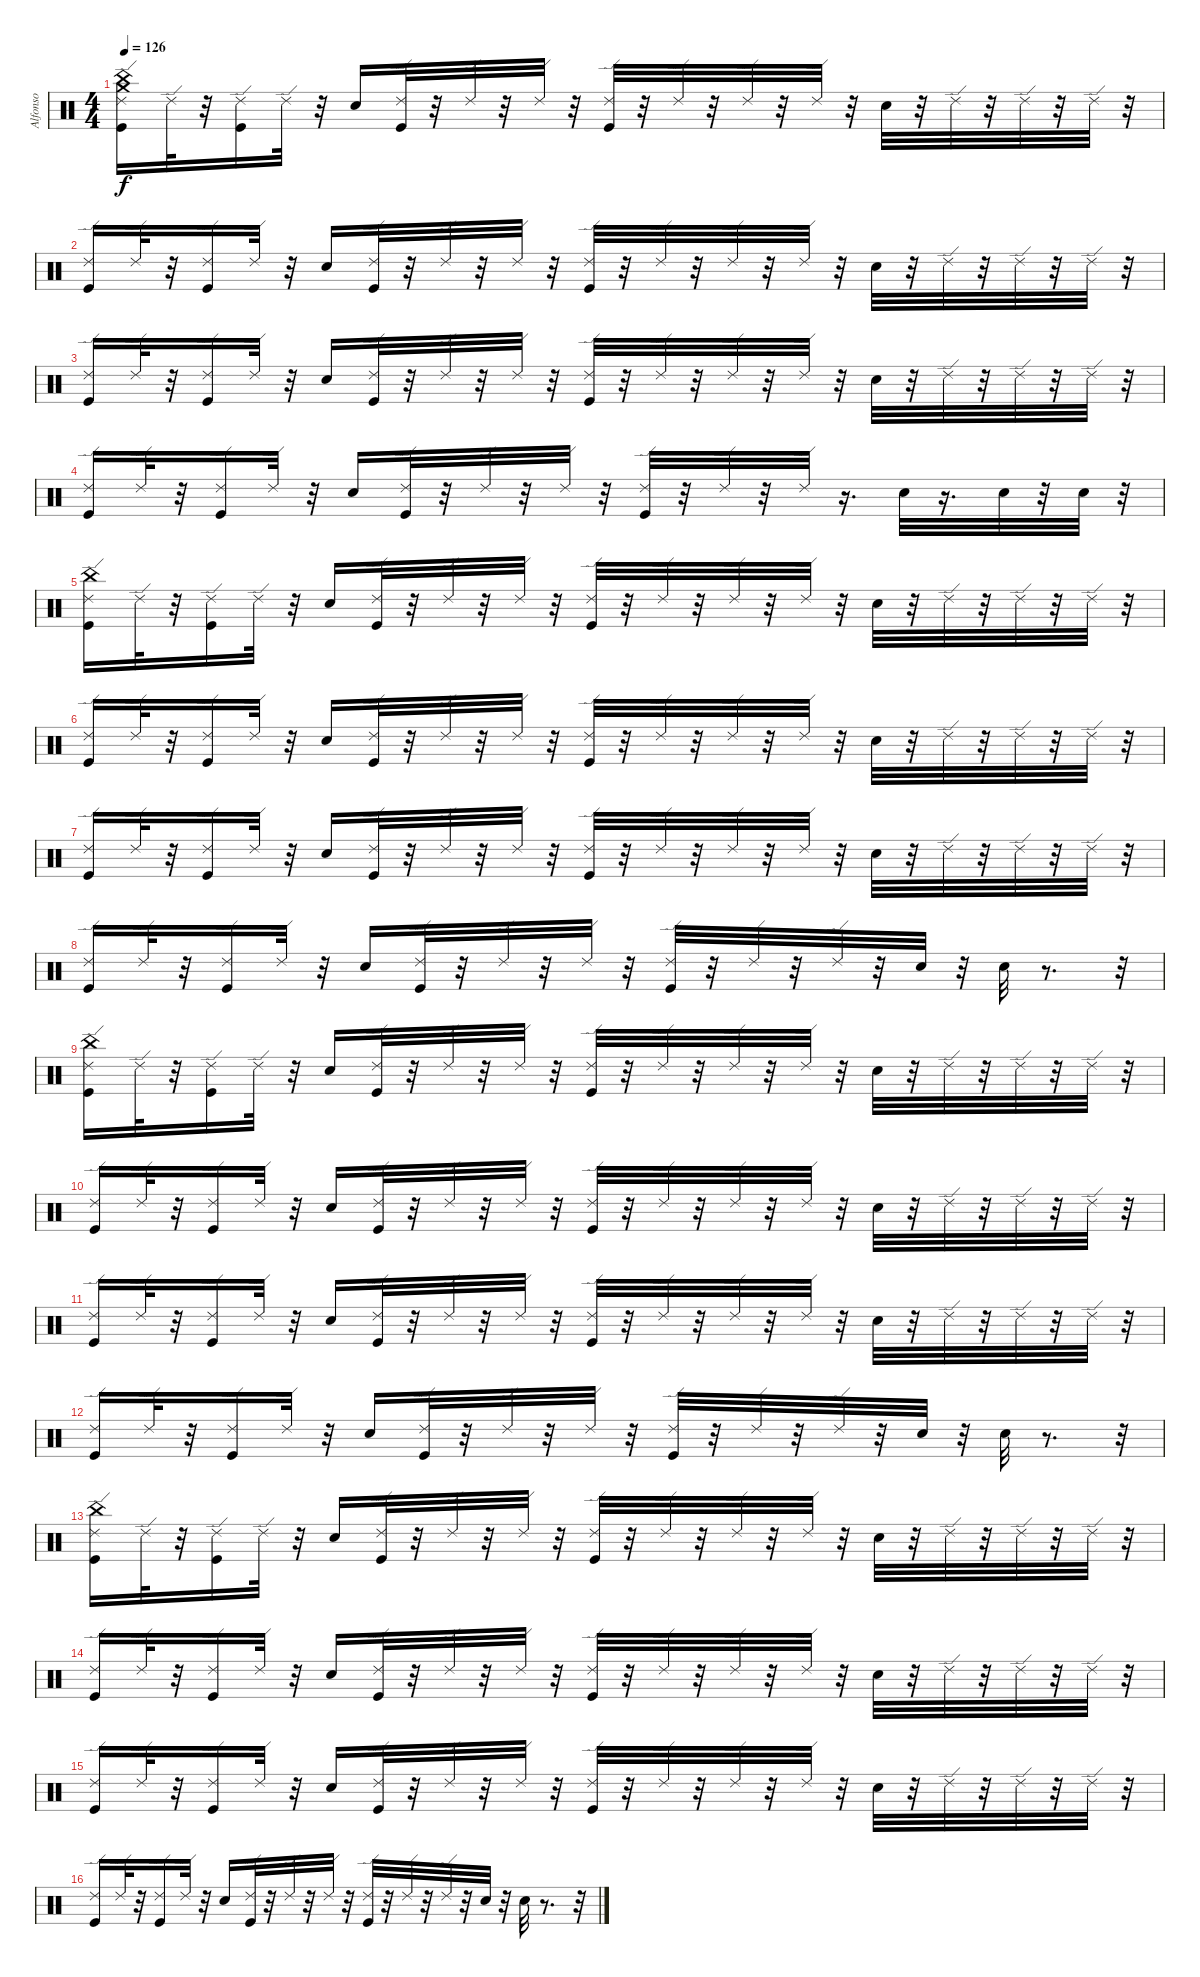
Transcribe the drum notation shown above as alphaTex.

\track ("Alfonso" "Alfonso") {instrument percussion}
\staff {score}
\articulation defaults
\ts (4 4)
\tempo 126
\clef neutral
\ks c
("Ride (edge) 2" "Kick (hit)" "Crash medium (hit)" "China (hit)").16{dy f} "Ride (edge) 2".32 r.32 ("Ride (edge) 2" "Kick (hit)").16 "Ride (edge) 2".32 r.32 "Snare (hit) 2".16 ("Kick (hit)" "Ride (edge) 2").32 r.32 "Ride (edge) 2".32 r.32 "Ride (edge) 2".32 r.32 ("Ride (edge) 2" "Kick (hit)").32 r.32 "Ride (edge) 2".32 r.32 "Ride (edge) 2".32 r.32 "Ride (edge) 2".32 r.32 "Snare (hit) 2".32 r.32 "Ride (edge) 2".32 r.32 "Ride (edge) 2".32 r.32 "Ride (edge) 2".32 r.32 |
("Ride (edge) 2" "Kick (hit)").16 "Ride (edge) 2".32 r.32 ("Kick (hit)" "Ride (edge) 2").16 "Ride (edge) 2".32 r.32 "Snare (hit) 2".16 ("Kick (hit)" "Ride (edge) 2").32 r.32 "Ride (edge) 2".32 r.32 "Ride (edge) 2".32 r.32 ("Ride (edge) 2" "Kick (hit)").32 r.32 "Ride (edge) 2".32 r.32 "Ride (edge) 2".32 r.32 "Ride (edge) 2".32 r.32 "Snare (hit) 2".32 r.32 "Ride (edge) 2".32 r.32 "Ride (edge) 2".32 r.32 "Ride (edge) 2".32 r.32 |
("Kick (hit)" "Ride (edge) 2").16 "Ride (edge) 2".32 r.32 ("Ride (edge) 2" "Kick (hit)").16 "Ride (edge) 2".32 r.32 "Snare (hit) 2".16 ("Ride (edge) 2" "Kick (hit)").32 r.32 "Ride (edge) 2".32 r.32 "Ride (edge) 2".32 r.32 ("Ride (edge) 2" "Kick (hit)").32 r.32 "Ride (edge) 2".32 r.32 "Ride (edge) 2".32 r.32 "Ride (edge) 2".32 r.32 "Snare (hit) 2".32 r.32 "Ride (edge) 2".32 r.32 "Ride (edge) 2".32 r.32 "Ride (edge) 2".32 r.32 |
("Ride (edge) 2" "Kick (hit)").16 "Ride (edge) 2".32 r.32 ("Kick (hit)" "Ride (edge) 2").16 "Ride (edge) 2".32 r.32 "Snare (hit) 2".16 ("Kick (hit)" "Ride (edge) 2").32 r.32 "Ride (edge) 2".32 r.32 "Ride (edge) 2".32 r.32 ("Kick (hit)" "Ride (edge) 2").32 r.32 "Ride (edge) 2".32 r.32 "Ride (edge) 2".32 r.16{d} "Snare (hit) 2".32 r.16{d} "Snare (hit) 2".32 r.32 "Snare (hit) 2".32 r.32 |
("Ride (edge) 2" "China (hit)" "Kick (hit)").16 "Ride (edge) 2".32 r.32 ("Ride (edge) 2" "Kick (hit)").16 "Ride (edge) 2".32 r.32 "Snare (hit) 2".16 ("Kick (hit)" "Ride (edge) 2").32 r.32 "Ride (edge) 2".32 r.32 "Ride (edge) 2".32 r.32 ("Kick (hit)" "Ride (edge) 2").32 r.32 "Ride (edge) 2".32 r.32 "Ride (edge) 2".32 r.32 "Ride (edge) 2".32 r.32 "Snare (hit) 2".32 r.32 "Ride (edge) 2".32 r.32 "Ride (edge) 2".32 r.32 "Ride (edge) 2".32 r.32 |
("Ride (edge) 2" "Kick (hit)").16 "Ride (edge) 2".32 r.32 ("Kick (hit)" "Ride (edge) 2").16 "Ride (edge) 2".32 r.32 "Snare (hit) 2".16 ("Ride (edge) 2" "Kick (hit)").32 r.32 "Ride (edge) 2".32 r.32 "Ride (edge) 2".32 r.32 ("Kick (hit)" "Ride (edge) 2").32 r.32 "Ride (edge) 2".32 r.32 "Ride (edge) 2".32 r.32 "Ride (edge) 2".32 r.32 "Snare (hit) 2".32 r.32 "Ride (edge) 2".32 r.32 "Ride (edge) 2".32 r.32 "Ride (edge) 2".32 r.32 |
("Kick (hit)" "Ride (edge) 2").16 "Ride (edge) 2".32 r.32 ("Kick (hit)" "Ride (edge) 2").16 "Ride (edge) 2".32 r.32 "Snare (hit) 2".16 ("Ride (edge) 2" "Kick (hit)").32 r.32 "Ride (edge) 2".32 r.32 "Ride (edge) 2".32 r.32 ("Ride (edge) 2" "Kick (hit)").32 r.32 "Ride (edge) 2".32 r.32 "Ride (edge) 2".32 r.32 "Ride (edge) 2".32 r.32 "Snare (hit) 2".32 r.32 "Ride (edge) 2".32 r.32 "Ride (edge) 2".32 r.32 "Ride (edge) 2".32 r.32 |
("Kick (hit)" "Ride (edge) 2").16 "Ride (edge) 2".32 r.32 ("Kick (hit)" "Ride (edge) 2").16 "Ride (edge) 2".32 r.32 "Snare (hit) 2".16 ("Kick (hit)" "Ride (edge) 2").32 r.32 "Ride (edge) 2".32 r.32 "Ride (edge) 2".32 r.32 ("Kick (hit)" "Ride (edge) 2").32 r.32 "Ride (edge) 2".32 r.32 "Ride (edge) 2".32 r.32 "Snare (hit) 2".32 r.32 "Snare (hit) 2".32 r.8{d} r.32 |
("Ride (edge) 2" "China (hit)" "Kick (hit)").16 "Ride (edge) 2".32 r.32 ("Ride (edge) 2" "Kick (hit)").16 "Ride (edge) 2".32 r.32 "Snare (hit) 2".16 ("Kick (hit)" "Ride (edge) 2").32 r.32 "Ride (edge) 2".32 r.32 "Ride (edge) 2".32 r.32 ("Kick (hit)" "Ride (edge) 2").32 r.32 "Ride (edge) 2".32 r.32 "Ride (edge) 2".32 r.32 "Ride (edge) 2".32 r.32 "Snare (hit) 2".32 r.32 "Ride (edge) 2".32 r.32 "Ride (edge) 2".32 r.32 "Ride (edge) 2".32 r.32 |
("Ride (edge) 2" "Kick (hit)").16 "Ride (edge) 2".32 r.32 ("Kick (hit)" "Ride (edge) 2").16 "Ride (edge) 2".32 r.32 "Snare (hit) 2".16 ("Ride (edge) 2" "Kick (hit)").32 r.32 "Ride (edge) 2".32 r.32 "Ride (edge) 2".32 r.32 ("Kick (hit)" "Ride (edge) 2").32 r.32 "Ride (edge) 2".32 r.32 "Ride (edge) 2".32 r.32 "Ride (edge) 2".32 r.32 "Snare (hit) 2".32 r.32 "Ride (edge) 2".32 r.32 "Ride (edge) 2".32 r.32 "Ride (edge) 2".32 r.32 |
("Kick (hit)" "Ride (edge) 2").16 "Ride (edge) 2".32 r.32 ("Kick (hit)" "Ride (edge) 2").16 "Ride (edge) 2".32 r.32 "Snare (hit) 2".16 ("Ride (edge) 2" "Kick (hit)").32 r.32 "Ride (edge) 2".32 r.32 "Ride (edge) 2".32 r.32 ("Ride (edge) 2" "Kick (hit)").32 r.32 "Ride (edge) 2".32 r.32 "Ride (edge) 2".32 r.32 "Ride (edge) 2".32 r.32 "Snare (hit) 2".32 r.32 "Ride (edge) 2".32 r.32 "Ride (edge) 2".32 r.32 "Ride (edge) 2".32 r.32 |
("Kick (hit)" "Ride (edge) 2").16 "Ride (edge) 2".32 r.32 ("Kick (hit)" "Ride (edge) 2").16 "Ride (edge) 2".32 r.32 "Snare (hit) 2".16 ("Kick (hit)" "Ride (edge) 2").32 r.32 "Ride (edge) 2".32 r.32 "Ride (edge) 2".32 r.32 ("Kick (hit)" "Ride (edge) 2").32 r.32 "Ride (edge) 2".32 r.32 "Ride (edge) 2".32 r.32 "Snare (hit) 2".32 r.32 "Snare (hit) 2".32 r.8{d} r.32 |
("Ride (edge) 2" "China (hit)" "Kick (hit)").16 "Ride (edge) 2".32 r.32 ("Ride (edge) 2" "Kick (hit)").16 "Ride (edge) 2".32 r.32 "Snare (hit) 2".16 ("Kick (hit)" "Ride (edge) 2").32 r.32 "Ride (edge) 2".32 r.32 "Ride (edge) 2".32 r.32 ("Kick (hit)" "Ride (edge) 2").32 r.32 "Ride (edge) 2".32 r.32 "Ride (edge) 2".32 r.32 "Ride (edge) 2".32 r.32 "Snare (hit) 2".32 r.32 "Ride (edge) 2".32 r.32 "Ride (edge) 2".32 r.32 "Ride (edge) 2".32 r.32 |
("Ride (edge) 2" "Kick (hit)").16 "Ride (edge) 2".32 r.32 ("Kick (hit)" "Ride (edge) 2").16 "Ride (edge) 2".32 r.32 "Snare (hit) 2".16 ("Ride (edge) 2" "Kick (hit)").32 r.32 "Ride (edge) 2".32 r.32 "Ride (edge) 2".32 r.32 ("Kick (hit)" "Ride (edge) 2").32 r.32 "Ride (edge) 2".32 r.32 "Ride (edge) 2".32 r.32 "Ride (edge) 2".32 r.32 "Snare (hit) 2".32 r.32 "Ride (edge) 2".32 r.32 "Ride (edge) 2".32 r.32 "Ride (edge) 2".32 r.32 |
("Kick (hit)" "Ride (edge) 2").16 "Ride (edge) 2".32 r.32 ("Kick (hit)" "Ride (edge) 2").16 "Ride (edge) 2".32 r.32 "Snare (hit) 2".16 ("Ride (edge) 2" "Kick (hit)").32 r.32 "Ride (edge) 2".32 r.32 "Ride (edge) 2".32 r.32 ("Ride (edge) 2" "Kick (hit)").32 r.32 "Ride (edge) 2".32 r.32 "Ride (edge) 2".32 r.32 "Ride (edge) 2".32 r.32 "Snare (hit) 2".32 r.32 "Ride (edge) 2".32 r.32 "Ride (edge) 2".32 r.32 "Ride (edge) 2".32 r.32 |
("Kick (hit)" "Ride (edge) 2").16 "Ride (edge) 2".32 r.32 ("Kick (hit)" "Ride (edge) 2").16 "Ride (edge) 2".32 r.32 "Snare (hit) 2".16 ("Kick (hit)" "Ride (edge) 2").32 r.32 "Ride (edge) 2".32 r.32 "Ride (edge) 2".32 r.32 ("Kick (hit)" "Ride (edge) 2").32 r.32 "Ride (edge) 2".32 r.32 "Ride (edge) 2".32 r.32 "Snare (hit) 2".32 r.32 "Snare (hit) 2".32 r.8{d} r.32
